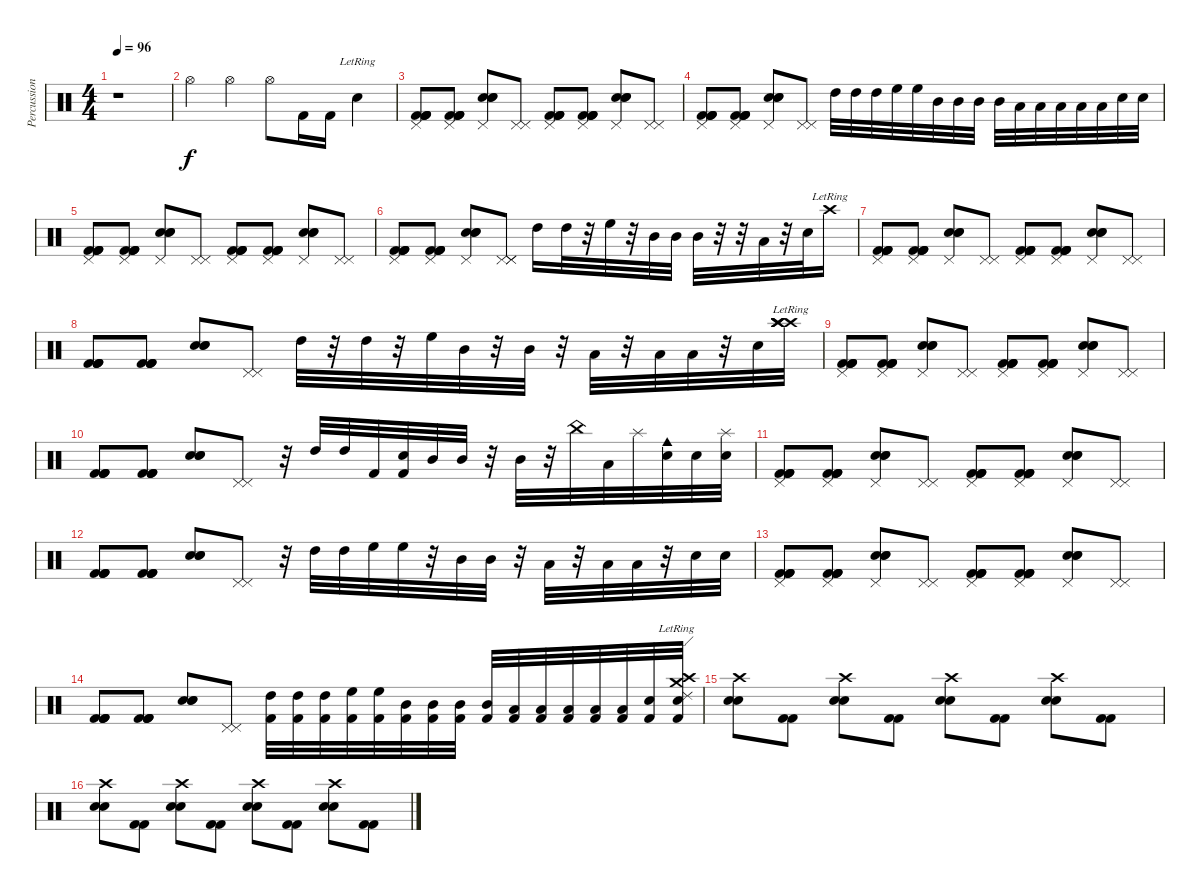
\track ("Percussion" "Percussion") {instrument percussion}
\staff {score}
\articulation defaults
\ts (4 4)
\tempo 96
\clef neutral
\ks c
r.1{dy f} |
"Hi-Hat (open)".4 "Hi-Hat (open)".4 "Hi-Hat (open)".8 "Kick (hit) 2".16 "Kick (hit) 2".16 "Electric Snare (hit)"{lr}.4 |
("Pedal Hi-Hat (hit)" "Kick (hit) 2" "Kick (hit) 2" "Kick (hit) 2" "Kick (hit) 2").8 ("Pedal Hi-Hat (hit)" "Kick (hit) 2" "Kick (hit) 2" "Kick (hit) 2" "Kick (hit) 2").8 ("Pedal Hi-Hat (hit)" "Electric Snare (hit)" "Electric Snare (hit)" "Electric Snare (hit)").8 ("Pedal Hi-Hat (hit)" "Pedal Hi-Hat (hit)").8 ("Pedal Hi-Hat (hit)" "Kick (hit) 2" "Kick (hit) 2" "Kick (hit) 2" "Kick (hit) 2").8 ("Pedal Hi-Hat (hit)" "Kick (hit) 2" "Kick (hit) 2" "Kick (hit) 2" "Kick (hit) 2").8 ("Pedal Hi-Hat (hit)" "Electric Snare (hit)" "Electric Snare (hit)" "Electric Snare (hit)").8 ("Pedal Hi-Hat (hit)" "Pedal Hi-Hat (hit)").8 |
("Pedal Hi-Hat (hit)" "Kick (hit) 2" "Kick (hit) 2" "Kick (hit) 2" "Kick (hit) 2").8 ("Pedal Hi-Hat (hit)" "Kick (hit) 2" "Kick (hit) 2" "Kick (hit) 2" "Kick (hit) 2").8 ("Pedal Hi-Hat (hit)" "Electric Snare (hit)" "Electric Snare (hit)" "Electric Snare (hit)").8 ("Pedal Hi-Hat (hit)" "Pedal Hi-Hat (hit)").8 "High Tom (hit)".32 "High Tom (hit)".32 "High Tom (hit)".32 "High Floor Tom (hit)".32 "High Floor Tom (hit)".32 "Mid Tom (hit)".32 "Mid Tom (hit)".32 "Mid Tom (hit)".32 "Mid Tom (hit)".32 "Low Tom (hit)".32 "Low Tom (hit)".32 "Low Tom (hit)".32 "Low Floor Tom (hit)".32 "Low Floor Tom (hit)".32 "Electric Snare (hit)".32 "Electric Snare (hit)".32 |
("Pedal Hi-Hat (hit)" "Kick (hit) 2" "Kick (hit) 2" "Kick (hit) 2" "Kick (hit) 2").8 ("Pedal Hi-Hat (hit)" "Kick (hit) 2" "Kick (hit) 2" "Kick (hit) 2" "Kick (hit) 2").8 ("Pedal Hi-Hat (hit)" "Electric Snare (hit)" "Electric Snare (hit)" "Electric Snare (hit)").8 ("Pedal Hi-Hat (hit)" "Pedal Hi-Hat (hit)").8 ("Pedal Hi-Hat (hit)" "Kick (hit) 2" "Kick (hit) 2" "Kick (hit) 2" "Kick (hit) 2").8 ("Pedal Hi-Hat (hit)" "Kick (hit) 2" "Kick (hit) 2" "Kick (hit) 2" "Kick (hit) 2").8 ("Pedal Hi-Hat (hit)" "Electric Snare (hit)" "Electric Snare (hit)" "Electric Snare (hit)").8 ("Pedal Hi-Hat (hit)" "Pedal Hi-Hat (hit)").8 |
("Pedal Hi-Hat (hit)" "Kick (hit) 2" "Kick (hit) 2" "Kick (hit) 2" "Kick (hit) 2").8 ("Pedal Hi-Hat (hit)" "Kick (hit) 2" "Kick (hit) 2" "Kick (hit) 2" "Kick (hit) 2").8 ("Pedal Hi-Hat (hit)" "Electric Snare (hit)" "Electric Snare (hit)" "Electric Snare (hit)").8 ("Pedal Hi-Hat (hit)" "Pedal Hi-Hat (hit)" "Pedal Hi-Hat (hit)").8 "High Tom (hit)".16 "High Tom (hit)".32 r.32 "High Floor Tom (hit)".32 r.32 "Mid Tom (hit)".32 "Mid Tom (hit)".32 "Mid Tom (hit)".32 r.32 r.32 "Low Tom (hit)".32 r.32 "Electric Snare (hit)".32 "Crash high (hit)"{lr}.16 |
("Pedal Hi-Hat (hit)" "Kick (hit) 2" "Kick (hit) 2" "Kick (hit) 2" "Kick (hit) 2").8 ("Pedal Hi-Hat (hit)" "Kick (hit) 2" "Kick (hit) 2" "Kick (hit) 2" "Kick (hit) 2").8 ("Pedal Hi-Hat (hit)" "Electric Snare (hit)" "Electric Snare (hit)" "Electric Snare (hit)").8 ("Pedal Hi-Hat (hit)" "Pedal Hi-Hat (hit)").8 ("Pedal Hi-Hat (hit)" "Kick (hit) 2" "Kick (hit) 2" "Kick (hit) 2" "Kick (hit) 2").8 ("Pedal Hi-Hat (hit)" "Kick (hit) 2" "Kick (hit) 2" "Kick (hit) 2" "Kick (hit) 2").8 ("Pedal Hi-Hat (hit)" "Electric Snare (hit)" "Electric Snare (hit)" "Electric Snare (hit)").8 ("Pedal Hi-Hat (hit)" "Pedal Hi-Hat (hit)").8 |
("Kick (hit) 2" "Kick (hit) 2" "Kick (hit) 2" "Kick (hit) 2").8 ("Kick (hit) 2" "Kick (hit) 2" "Kick (hit) 2" "Kick (hit) 2").8 ("Electric Snare (hit)" "Electric Snare (hit)" "Electric Snare (hit)").8 ("Pedal Hi-Hat (hit)" "Pedal Hi-Hat (hit)").8 "High Tom (hit)".32 r.32 "High Tom (hit)".32 r.32 "High Floor Tom (hit)".32 "Mid Tom (hit)".32 r.32 "Mid Tom (hit)".32 r.32 "Low Tom (hit)".32 r.32 "Low Tom (hit)".32 "Low Floor Tom (hit)".32 r.32 "Electric Snare (hit)".32 ("Crash high (hit)"{lr} "Crash high (hit)"{lr} "Crash high (hit)"{lr} "Crash high (hit)"{lr}).32 |
("Pedal Hi-Hat (hit)" "Kick (hit) 2" "Kick (hit) 2" "Kick (hit) 2" "Kick (hit) 2").8 ("Pedal Hi-Hat (hit)" "Kick (hit) 2" "Kick (hit) 2" "Kick (hit) 2" "Kick (hit) 2").8 ("Pedal Hi-Hat (hit)" "Electric Snare (hit)" "Electric Snare (hit)" "Electric Snare (hit)").8 ("Pedal Hi-Hat (hit)" "Pedal Hi-Hat (hit)").8 ("Pedal Hi-Hat (hit)" "Kick (hit) 2" "Kick (hit) 2" "Kick (hit) 2" "Kick (hit) 2").8 ("Pedal Hi-Hat (hit)" "Kick (hit) 2" "Kick (hit) 2" "Kick (hit) 2" "Kick (hit) 2").8 ("Pedal Hi-Hat (hit)" "Electric Snare (hit)" "Electric Snare (hit)" "Electric Snare (hit)").8 ("Pedal Hi-Hat (hit)" "Pedal Hi-Hat (hit)").8 |
("Kick (hit) 2" "Kick (hit) 2" "Kick (hit) 2" "Kick (hit) 2").8 ("Kick (hit) 2" "Kick (hit) 2" "Kick (hit) 2" "Kick (hit) 2").8 ("Electric Snare (hit)" "Electric Snare (hit)" "Electric Snare (hit)").8 ("Pedal Hi-Hat (hit)" "Pedal Hi-Hat (hit)").8 r.32 "High Tom (hit)".32 "High Tom (hit)".32 "Kick (hit) 2".32 ("Electric Snare (hit)" "Kick (hit) 2").32 "Mid Tom (hit)".32 "Mid Tom (hit)".32 r.32 "Mid Tom (hit)".32 r.32 "China (hit)".32 "Low Tom (hit)".32 "Splash (hit)".32 ("Electric Snare (hit)" "Cowbell medium (hit)").32 "Electric Snare (hit)".32 ("Splash (hit)" "Electric Snare (hit)").32 |
("Pedal Hi-Hat (hit)" "Kick (hit) 2" "Kick (hit) 2" "Kick (hit) 2" "Kick (hit) 2").8 ("Pedal Hi-Hat (hit)" "Kick (hit) 2" "Kick (hit) 2" "Kick (hit) 2" "Kick (hit) 2").8 ("Pedal Hi-Hat (hit)" "Electric Snare (hit)" "Electric Snare (hit)" "Electric Snare (hit)").8 ("Pedal Hi-Hat (hit)" "Pedal Hi-Hat (hit)").8 ("Pedal Hi-Hat (hit)" "Kick (hit) 2" "Kick (hit) 2" "Kick (hit) 2" "Kick (hit) 2").8 ("Pedal Hi-Hat (hit)" "Kick (hit) 2" "Kick (hit) 2" "Kick (hit) 2" "Kick (hit) 2").8 ("Pedal Hi-Hat (hit)" "Electric Snare (hit)" "Electric Snare (hit)" "Electric Snare (hit)").8 ("Pedal Hi-Hat (hit)" "Pedal Hi-Hat (hit)").8 |
("Kick (hit) 2" "Kick (hit) 2" "Kick (hit) 2" "Kick (hit) 2").8 ("Kick (hit) 2" "Kick (hit) 2" "Kick (hit) 2" "Kick (hit) 2").8 ("Electric Snare (hit)" "Electric Snare (hit)" "Electric Snare (hit)").8 ("Pedal Hi-Hat (hit)" "Pedal Hi-Hat (hit)").8 r.32 "High Tom (hit)".32 "High Tom (hit)".32 "High Floor Tom (hit)".32 "High Floor Tom (hit)".32 r.32 "Mid Tom (hit)".32 "Mid Tom (hit)".32 r.32 "Low Floor Tom (hit)".32 r.32 "Low Tom (hit)".32 "Low Floor Tom (hit)".32 r.32 "Electric Snare (hit)".32 "Electric Snare (hit)".32 |
("Pedal Hi-Hat (hit)" "Kick (hit) 2" "Kick (hit) 2" "Kick (hit) 2" "Kick (hit) 2").8 ("Pedal Hi-Hat (hit)" "Kick (hit) 2" "Kick (hit) 2" "Kick (hit) 2" "Kick (hit) 2").8 ("Pedal Hi-Hat (hit)" "Electric Snare (hit)" "Electric Snare (hit)" "Electric Snare (hit)").8 ("Pedal Hi-Hat (hit)" "Pedal Hi-Hat (hit)").8 ("Pedal Hi-Hat (hit)" "Kick (hit) 2" "Kick (hit) 2" "Kick (hit) 2" "Kick (hit) 2").8 ("Pedal Hi-Hat (hit)" "Kick (hit) 2" "Kick (hit) 2" "Kick (hit) 2" "Kick (hit) 2").8 ("Pedal Hi-Hat (hit)" "Electric Snare (hit)" "Electric Snare (hit)" "Electric Snare (hit)").8 ("Pedal Hi-Hat (hit)" "Pedal Hi-Hat (hit)").8 |
("Kick (hit) 2" "Kick (hit) 2" "Kick (hit) 2" "Kick (hit) 2").8 ("Kick (hit) 2" "Kick (hit) 2" "Kick (hit) 2" "Kick (hit) 2").8 ("Electric Snare (hit)" "Electric Snare (hit)" "Electric Snare (hit)").8 ("Pedal Hi-Hat (hit)" "Pedal Hi-Hat (hit)").8 ("Kick (hit) 2" "High Tom (hit)").32 ("Kick (hit) 2" "High Tom (hit)").32 ("Kick (hit) 2" "High Tom (hit)").32 ("Kick (hit) 2" "High Floor Tom (hit)").32 ("Kick (hit) 2" "High Floor Tom (hit)").32 ("Kick (hit) 2" "Mid Tom (hit)").32 ("Kick (hit) 2" "Mid Tom (hit)").32 ("Kick (hit) 2" "Mid Tom (hit)").32 ("Kick (hit) 2" "Mid Tom (hit)").32 ("Kick (hit) 2" "Low Tom (hit)").32 ("Kick (hit) 2" "Low Tom (hit)").32 ("Kick (hit) 2" "Low Tom (hit)").32 ("Kick (hit) 2" "Low Floor Tom (hit)").32 ("Kick (hit) 2" "Low Floor Tom (hit)").32 ("Kick (hit) 2" "Electric Snare (hit)").32 ("Kick (hit) 2"{lr} "Electric Snare (hit)"{lr} "Crash high (hit)"{lr} "Crash medium (hit)"{lr} "Ride (edge) 2"{lr}).32 |
("Crash high (hit)" "Electric Snare (hit)" "Electric Snare (hit)").8 ("Kick (hit) 2" "Kick (hit) 2").8 ("Crash high (hit)" "Electric Snare (hit)" "Electric Snare (hit)").8 ("Kick (hit) 2" "Kick (hit) 2").8 ("Crash high (hit)" "Electric Snare (hit)" "Electric Snare (hit)").8 ("Kick (hit) 2" "Kick (hit) 2").8 ("Crash high (hit)" "Electric Snare (hit)" "Electric Snare (hit)").8 ("Kick (hit) 2" "Kick (hit) 2").8 |
("Crash high (hit)" "Electric Snare (hit)" "Electric Snare (hit)").8 ("Kick (hit) 2" "Kick (hit) 2").8 ("Crash high (hit)" "Electric Snare (hit)" "Electric Snare (hit)").8 ("Kick (hit) 2" "Kick (hit) 2").8 ("Crash high (hit)" "Electric Snare (hit)" "Electric Snare (hit)").8 ("Kick (hit) 2" "Kick (hit) 2").8 ("Crash high (hit)" "Electric Snare (hit)" "Electric Snare (hit)").8 ("Kick (hit) 2" "Kick (hit) 2").8
